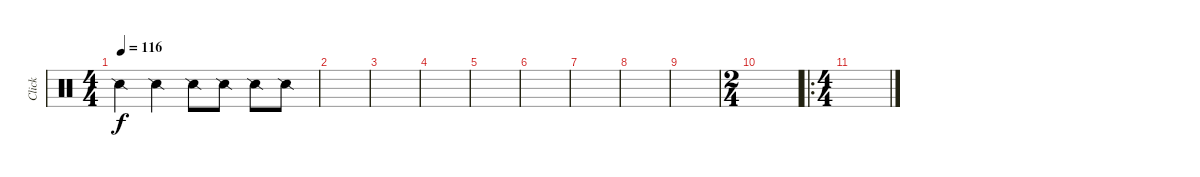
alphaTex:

\track ("Click" "Click") {instrument percussion}
\staff {score}
\articulation defaults
\ts (4 4)
\tempo 116
\clef neutral
\ks c "Snare (side stick) 2".4{dy f} "Snare (side stick) 2".4 "Snare (side stick) 2".8 "Snare (side stick) 2".8 "Snare (side stick) 2".8 "Snare (side stick) 2".8
|
|
|
|
|
|
|
|
|
\ts (2 4)
|
\ro
\ts (4 4)
